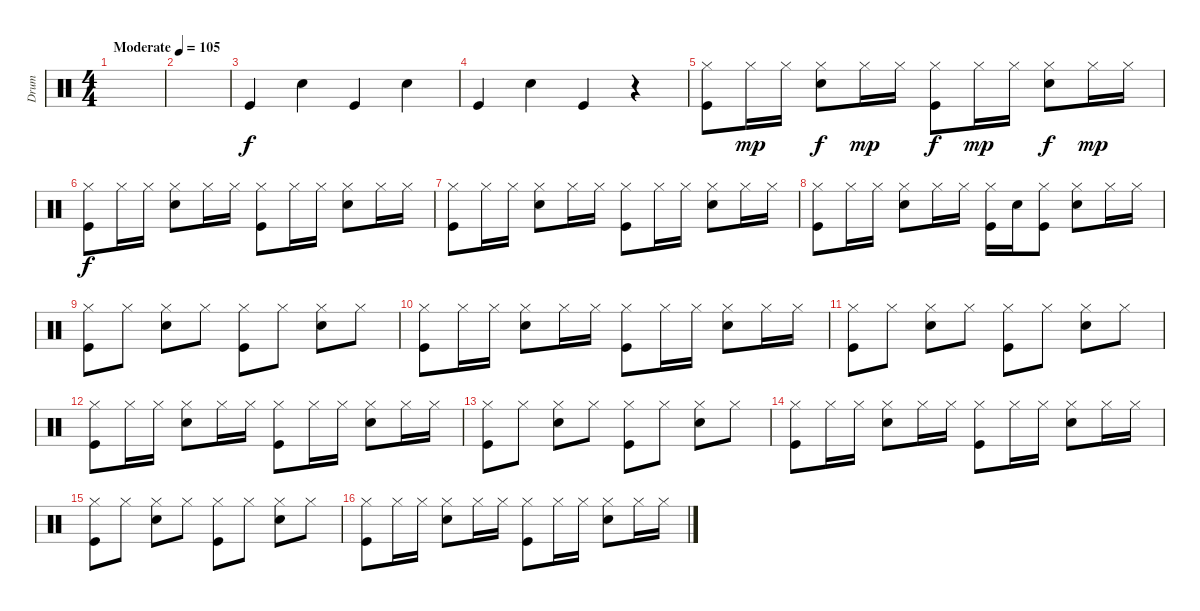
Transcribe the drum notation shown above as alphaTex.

\track ("Drum" "Drum") {instrument percussion}
\staff {score}
\articulation defaults
\ts (4 4)
\tempo (105 "Moderate")
\clef neutral
\ks c
|
|
"Kick (hit)".4 "Snare (hit) 2".4 "Kick (hit)".4 "Snare (hit) 2".4 |
"Kick (hit)".4 "Snare (hit) 2".4 "Kick (hit)".4 r.4 |
("Hi-Hat (closed)" "Kick (hit)").8 "Hi-Hat (closed)".16{dy mp} "Hi-Hat (closed)".16 ("Hi-Hat (closed)" "Snare (hit) 2").8{dy f} "Hi-Hat (closed)".16{dy mp} "Hi-Hat (closed)".16 ("Hi-Hat (closed)" "Kick (hit)").8{dy f} "Hi-Hat (closed)".16{dy mp} "Hi-Hat (closed)".16 ("Hi-Hat (closed)" "Snare (hit) 2").8{dy f} "Hi-Hat (closed)".16{dy mp} "Hi-Hat (closed)".16 |
("Hi-Hat (closed)" "Kick (hit)").8{dy f} "Hi-Hat (closed)".16 "Hi-Hat (closed)".16 ("Hi-Hat (closed)" "Snare (hit) 2").8 "Hi-Hat (closed)".16 "Hi-Hat (closed)".16 ("Hi-Hat (closed)" "Kick (hit)").8 "Hi-Hat (closed)".16 "Hi-Hat (closed)".16 ("Hi-Hat (closed)" "Snare (hit) 2").8 "Hi-Hat (closed)".16 "Hi-Hat (closed)".16 |
("Hi-Hat (closed)" "Kick (hit)").8 "Hi-Hat (closed)".16 "Hi-Hat (closed)".16 ("Hi-Hat (closed)" "Snare (hit) 2").8 "Hi-Hat (closed)".16 "Hi-Hat (closed)".16 ("Hi-Hat (closed)" "Kick (hit)").8 "Hi-Hat (closed)".16 "Hi-Hat (closed)".16 ("Hi-Hat (closed)" "Snare (hit) 2").8 "Hi-Hat (closed)".16 "Hi-Hat (closed)".16 |
("Hi-Hat (closed)" "Kick (hit)").8 "Hi-Hat (closed)".16 "Hi-Hat (closed)".16 ("Hi-Hat (closed)" "Snare (hit) 2").8 "Hi-Hat (closed)".16 "Hi-Hat (closed)".16 ("Hi-Hat (closed)" "Kick (hit)").16 "Snare (hit) 2".16 ("Hi-Hat (closed)" "Kick (hit)").8 ("Hi-Hat (closed)" "Snare (hit) 2").8 "Hi-Hat (closed)".16 "Hi-Hat (closed)".16 |
("Hi-Hat (closed)" "Kick (hit)").8 "Hi-Hat (closed)".8 ("Hi-Hat (closed)" "Snare (hit) 2").8 "Hi-Hat (closed)".8 ("Hi-Hat (closed)" "Kick (hit)").8 "Hi-Hat (closed)".8 ("Hi-Hat (closed)" "Snare (hit) 2").8 "Hi-Hat (closed)".8 |
("Hi-Hat (closed)" "Kick (hit)").8 "Hi-Hat (closed)".16 "Hi-Hat (closed)".16 ("Hi-Hat (closed)" "Snare (hit) 2").8 "Hi-Hat (closed)".16 "Hi-Hat (closed)".16 ("Hi-Hat (closed)" "Kick (hit)").8 "Hi-Hat (closed)".16 "Hi-Hat (closed)".16 ("Hi-Hat (closed)" "Snare (hit) 2").8 "Hi-Hat (closed)".16 "Hi-Hat (closed)".16 |
("Hi-Hat (closed)" "Kick (hit)").8 "Hi-Hat (closed)".8 ("Hi-Hat (closed)" "Snare (hit) 2").8 "Hi-Hat (closed)".8 ("Hi-Hat (closed)" "Kick (hit)").8 "Hi-Hat (closed)".8 ("Hi-Hat (closed)" "Snare (hit) 2").8 "Hi-Hat (closed)".8 |
("Hi-Hat (closed)" "Kick (hit)").8 "Hi-Hat (closed)".16 "Hi-Hat (closed)".16 ("Hi-Hat (closed)" "Snare (hit) 2").8 "Hi-Hat (closed)".16 "Hi-Hat (closed)".16 ("Hi-Hat (closed)" "Kick (hit)").8 "Hi-Hat (closed)".16 "Hi-Hat (closed)".16 ("Hi-Hat (closed)" "Snare (hit) 2").8 "Hi-Hat (closed)".16 "Hi-Hat (closed)".16 |
("Hi-Hat (closed)" "Kick (hit)").8 "Hi-Hat (closed)".8 ("Hi-Hat (closed)" "Snare (hit) 2").8 "Hi-Hat (closed)".8 ("Hi-Hat (closed)" "Kick (hit)").8 "Hi-Hat (closed)".8 ("Hi-Hat (closed)" "Snare (hit) 2").8 "Hi-Hat (closed)".8 |
("Hi-Hat (closed)" "Kick (hit)").8 "Hi-Hat (closed)".16 "Hi-Hat (closed)".16 ("Hi-Hat (closed)" "Snare (hit) 2").8 "Hi-Hat (closed)".16 "Hi-Hat (closed)".16 ("Hi-Hat (closed)" "Kick (hit)").8 "Hi-Hat (closed)".16 "Hi-Hat (closed)".16 ("Hi-Hat (closed)" "Snare (hit) 2").8 "Hi-Hat (closed)".16 "Hi-Hat (closed)".16 |
("Hi-Hat (closed)" "Kick (hit)").8 "Hi-Hat (closed)".8 ("Hi-Hat (closed)" "Snare (hit) 2").8 "Hi-Hat (closed)".8 ("Hi-Hat (closed)" "Kick (hit)").8 "Hi-Hat (closed)".8 ("Hi-Hat (closed)" "Snare (hit) 2").8 "Hi-Hat (closed)".8 |
("Hi-Hat (closed)" "Kick (hit)").8 "Hi-Hat (closed)".16 "Hi-Hat (closed)".16 ("Hi-Hat (closed)" "Snare (hit) 2").8 "Hi-Hat (closed)".16 "Hi-Hat (closed)".16 ("Hi-Hat (closed)" "Kick (hit)").8 "Hi-Hat (closed)".16 "Hi-Hat (closed)".16 ("Hi-Hat (closed)" "Snare (hit) 2").8 "Hi-Hat (closed)".16 "Hi-Hat (closed)".16
